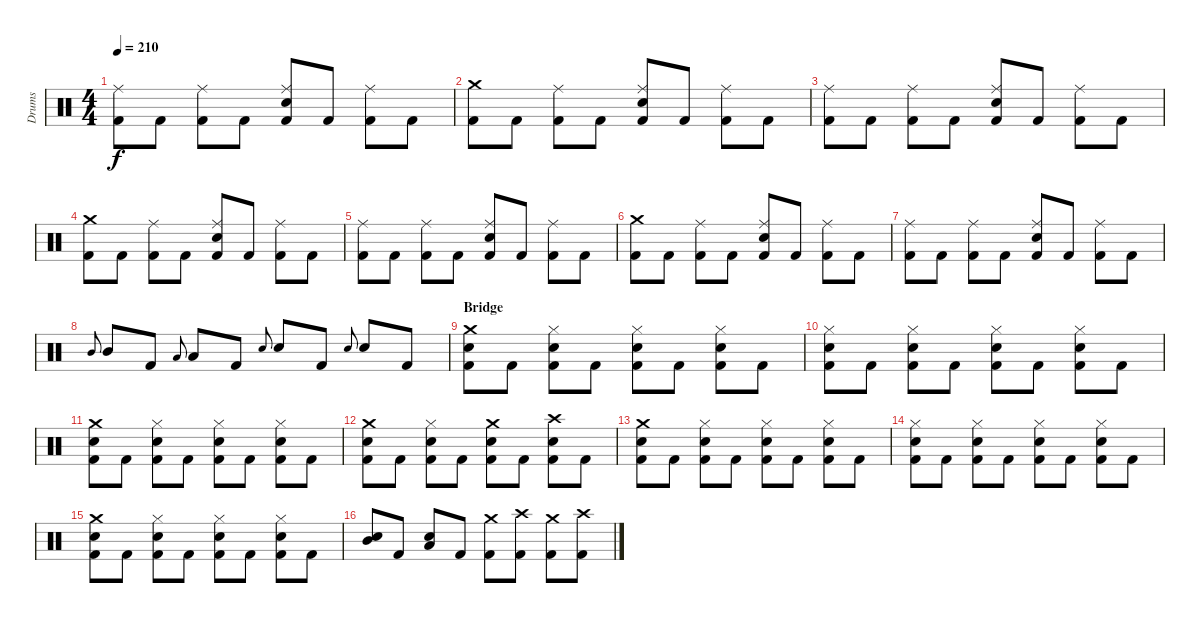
\track ("Drums" "Drums") {instrument percussion}
\staff {score}
\articulation defaults
\ts (4 4)
\tempo 210
\clef neutral
\ks c
("Kick (hit) 2" "Ride (middle)").8{dy f} "Kick (hit) 2".8 ("Kick (hit) 2" "Ride (middle)").8 "Kick (hit) 2".8 ("Kick (hit) 2" "Snare (hit) 2" "Ride (middle)").8 "Kick (hit) 2".8 ("Kick (hit) 2" "Ride (middle)").8 "Kick (hit) 2".8 |
("Kick (hit) 2" "Crash medium (hit)").8 "Kick (hit) 2".8 ("Kick (hit) 2" "Ride (middle)").8 "Kick (hit) 2".8 ("Kick (hit) 2" "Snare (hit) 2" "Ride (middle)").8 "Kick (hit) 2".8 ("Kick (hit) 2" "Ride (middle)").8 "Kick (hit) 2".8 |
("Kick (hit) 2" "Ride (middle)").8 "Kick (hit) 2".8 ("Kick (hit) 2" "Ride (middle)").8 "Kick (hit) 2".8 ("Kick (hit) 2" "Snare (hit) 2" "Ride (middle)").8 "Kick (hit) 2".8 ("Kick (hit) 2" "Ride (middle)").8 "Kick (hit) 2".8 |
("Kick (hit) 2" "Crash medium (hit)").8 "Kick (hit) 2".8 ("Kick (hit) 2" "Ride (middle)").8 "Kick (hit) 2".8 ("Kick (hit) 2" "Snare (hit) 2" "Ride (middle)").8 "Kick (hit) 2".8 ("Kick (hit) 2" "Ride (middle)").8 "Kick (hit) 2".8 |
("Kick (hit) 2" "Ride (middle)").8 "Kick (hit) 2".8 ("Kick (hit) 2" "Ride (middle)").8 "Kick (hit) 2".8 ("Kick (hit) 2" "Snare (hit) 2" "Ride (middle)").8 "Kick (hit) 2".8 ("Kick (hit) 2" "Ride (middle)").8 "Kick (hit) 2".8 |
("Kick (hit) 2" "Crash medium (hit)").8 "Kick (hit) 2".8 ("Kick (hit) 2" "Ride (middle)").8 "Kick (hit) 2".8 ("Kick (hit) 2" "Snare (hit) 2" "Ride (middle)").8 "Kick (hit) 2".8 ("Kick (hit) 2" "Ride (middle)").8 "Kick (hit) 2".8 |
("Kick (hit) 2" "Ride (middle)").8 "Kick (hit) 2".8 ("Kick (hit) 2" "Ride (middle)").8 "Kick (hit) 2".8 ("Kick (hit) 2" "Snare (hit) 2" "Ride (middle)").8 "Kick (hit) 2".8 ("Kick (hit) 2" "Ride (middle)").8 "Kick (hit) 2".8 |
"Mid Tom (hit)".8{gr onbeat} "Mid Tom (hit)".8 "Kick (hit) 2".8 "Low Tom (hit)".8{gr onbeat} "Low Tom (hit)".8 "Kick (hit) 2".8 "Snare (hit) 2".8{gr onbeat} "Snare (hit) 2".8 "Kick (hit) 2".8 "Snare (hit) 2".8{gr onbeat} "Snare (hit) 2".8 "Kick (hit) 2".8 |
\section ("" "Bridge")
("Kick (hit) 2" "Snare (hit) 2" "Crash medium (hit)").8 "Kick (hit) 2".8 ("Kick (hit) 2" "Snare (hit) 2" "Hi-Hat (closed)").8 "Kick (hit) 2".8 ("Kick (hit) 2" "Snare (hit) 2" "Hi-Hat (closed)").8 "Kick (hit) 2".8 ("Kick (hit) 2" "Snare (hit) 2" "Hi-Hat (closed)").8 "Kick (hit) 2".8 |
("Kick (hit) 2" "Snare (hit) 2" "Hi-Hat (closed)").8 "Kick (hit) 2".8 ("Kick (hit) 2" "Snare (hit) 2" "Hi-Hat (closed)").8 "Kick (hit) 2".8 ("Kick (hit) 2" "Snare (hit) 2" "Hi-Hat (closed)").8 "Kick (hit) 2".8 ("Kick (hit) 2" "Snare (hit) 2" "Hi-Hat (closed)").8 "Kick (hit) 2".8 |
("Kick (hit) 2" "Snare (hit) 2" "Crash medium (hit)").8 "Kick (hit) 2".8 ("Kick (hit) 2" "Snare (hit) 2" "Hi-Hat (closed)").8 "Kick (hit) 2".8 ("Kick (hit) 2" "Snare (hit) 2" "Hi-Hat (closed)").8 "Kick (hit) 2".8 ("Kick (hit) 2" "Snare (hit) 2" "Hi-Hat (closed)").8 "Kick (hit) 2".8 |
("Kick (hit) 2" "Snare (hit) 2" "Crash medium (hit)").8 "Kick (hit) 2".8 ("Kick (hit) 2" "Snare (hit) 2" "Hi-Hat (closed)").8 "Kick (hit) 2".8 ("Kick (hit) 2" "Snare (hit) 2" "Crash medium (hit)").8 "Kick (hit) 2".8 ("Kick (hit) 2" "Snare (hit) 2" "Crash high (hit)").8 "Kick (hit) 2".8 |
("Kick (hit) 2" "Snare (hit) 2" "Crash medium (hit)").8 "Kick (hit) 2".8 ("Kick (hit) 2" "Snare (hit) 2" "Hi-Hat (closed)").8 "Kick (hit) 2".8 ("Kick (hit) 2" "Snare (hit) 2" "Hi-Hat (closed)").8 "Kick (hit) 2".8 ("Kick (hit) 2" "Snare (hit) 2" "Hi-Hat (closed)").8 "Kick (hit) 2".8 |
("Kick (hit) 2" "Snare (hit) 2" "Hi-Hat (closed)").8 "Kick (hit) 2".8 ("Kick (hit) 2" "Snare (hit) 2" "Hi-Hat (closed)").8 "Kick (hit) 2".8 ("Kick (hit) 2" "Snare (hit) 2" "Hi-Hat (closed)").8 "Kick (hit) 2".8 ("Kick (hit) 2" "Snare (hit) 2" "Hi-Hat (closed)").8 "Kick (hit) 2".8 |
("Kick (hit) 2" "Snare (hit) 2" "Crash medium (hit)").8 "Kick (hit) 2".8 ("Kick (hit) 2" "Snare (hit) 2" "Hi-Hat (closed)").8 "Kick (hit) 2".8 ("Kick (hit) 2" "Snare (hit) 2" "Hi-Hat (closed)").8 "Kick (hit) 2".8 ("Kick (hit) 2" "Snare (hit) 2" "Hi-Hat (closed)").8 "Kick (hit) 2".8 |
("Snare (hit) 2" "Mid Tom (hit)").8 "Kick (hit) 2".8 ("Snare (hit) 2" "Low Tom (hit)").8 "Kick (hit) 2".8 ("Kick (hit) 2" "Crash medium (hit)").8 ("Kick (hit) 2" "Crash high (hit)").8 ("Kick (hit) 2" "Crash medium (hit)").8 ("Kick (hit) 2" "Crash high (hit)").8
